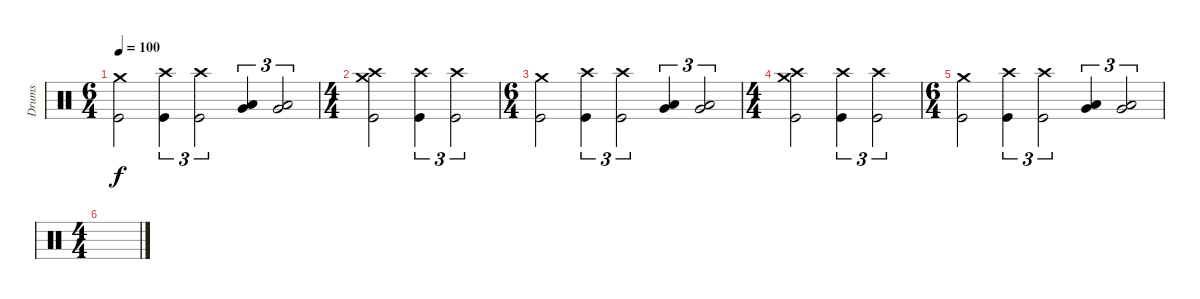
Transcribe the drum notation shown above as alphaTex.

\track ("Drums" "Drums") {instrument percussion}
\staff {score}
\articulation defaults
\ts (6 4)
\tempo 100
\clef neutral
\ks c
("Crash medium (hit)" "Kick (hit)").2{dy f} ("Crash high (hit)" "Kick (hit)").4{tu (3 2)} ("Crash high (hit)" "Kick (hit)").2{tu (3 2)} ("Low Tom (hit)" "Very Low Tom (hit)").4{tu (3 2)} ("Low Tom (hit)" "Very Low Tom (hit)").2{tu (3 2)} |
\ts (4 4)
("Crash high (hit)" "Crash medium (hit)" "Kick (hit)").2 ("Crash high (hit)" "Kick (hit)").4{tu (3 2)} ("Crash high (hit)" "Kick (hit)").2{tu (3 2)} |
\ts (6 4)
("Crash medium (hit)" "Kick (hit)").2 ("Crash high (hit)" "Kick (hit)").4{tu (3 2)} ("Crash high (hit)" "Kick (hit)").2{tu (3 2)} ("Low Tom (hit)" "Very Low Tom (hit)").4{tu (3 2)} ("Low Tom (hit)" "Very Low Tom (hit)").2{tu (3 2)} |
\ts (4 4)
("Crash high (hit)" "Crash medium (hit)" "Kick (hit)").2 ("Crash high (hit)" "Kick (hit)").4{tu (3 2)} ("Crash high (hit)" "Kick (hit)").2{tu (3 2)} |
\ts (6 4)
("Crash medium (hit)" "Kick (hit)").2 ("Crash high (hit)" "Kick (hit)").4{tu (3 2)} ("Crash high (hit)" "Kick (hit)").2{tu (3 2)} ("Low Tom (hit)" "Very Low Tom (hit)").4{tu (3 2)} ("Low Tom (hit)" "Very Low Tom (hit)").2{tu (3 2)} |
\ts (4 4)
